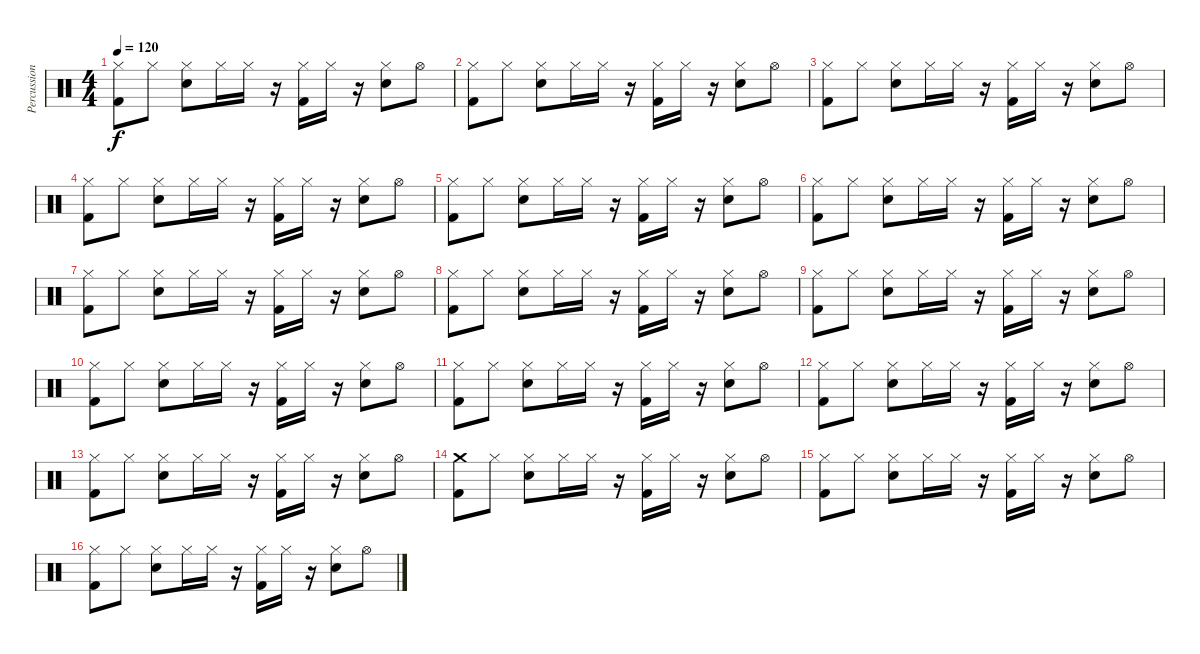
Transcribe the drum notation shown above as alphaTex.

\track ("Percussions" "Percussion") {instrument percussion}
\staff {score}
\articulation defaults
\ts (4 4)
\tempo 120
\clef neutral
\ks c
("Hi-Hat (closed)" "Kick (hit) 2").8{dy f} "Hi-Hat (closed)".8 ("Hi-Hat (closed)" "Snare (hit) 2").8 "Hi-Hat (closed)".16 "Hi-Hat (closed)".16 r.16 ("Hi-Hat (closed)" "Kick (hit) 2").16 "Hi-Hat (closed)".16 r.16 ("Hi-Hat (closed)" "Snare (hit) 2").8 "Hi-Hat (open)".8 |
("Hi-Hat (closed)" "Kick (hit) 2").8 "Hi-Hat (closed)".8 ("Hi-Hat (closed)" "Snare (hit) 2").8 "Hi-Hat (closed)".16 "Hi-Hat (closed)".16 r.16 ("Hi-Hat (closed)" "Kick (hit) 2").16 "Hi-Hat (closed)".16 r.16 ("Hi-Hat (closed)" "Snare (hit) 2").8 "Hi-Hat (open)".8 |
("Hi-Hat (closed)" "Kick (hit) 2").8 "Hi-Hat (closed)".8 ("Hi-Hat (closed)" "Snare (hit) 2").8 "Hi-Hat (closed)".16 "Hi-Hat (closed)".16 r.16 ("Hi-Hat (closed)" "Kick (hit) 2").16 "Hi-Hat (closed)".16 r.16 ("Hi-Hat (closed)" "Snare (hit) 2").8 "Hi-Hat (open)".8 |
("Hi-Hat (closed)" "Kick (hit) 2").8 "Hi-Hat (closed)".8 ("Hi-Hat (closed)" "Snare (hit) 2").8 "Hi-Hat (closed)".16 "Hi-Hat (closed)".16 r.16 ("Hi-Hat (closed)" "Kick (hit) 2").16 "Hi-Hat (closed)".16 r.16 ("Hi-Hat (closed)" "Snare (hit) 2").8 "Hi-Hat (open)".8 |
("Hi-Hat (closed)" "Kick (hit) 2").8 "Hi-Hat (closed)".8 ("Hi-Hat (closed)" "Snare (hit) 2").8 "Hi-Hat (closed)".16 "Hi-Hat (closed)".16 r.16 ("Hi-Hat (closed)" "Kick (hit) 2").16 "Hi-Hat (closed)".16 r.16 ("Hi-Hat (closed)" "Snare (hit) 2").8 "Hi-Hat (open)".8 |
("Hi-Hat (closed)" "Kick (hit) 2").8 "Hi-Hat (closed)".8 ("Hi-Hat (closed)" "Snare (hit) 2").8 "Hi-Hat (closed)".16 "Hi-Hat (closed)".16 r.16 ("Hi-Hat (closed)" "Kick (hit) 2").16 "Hi-Hat (closed)".16 r.16 ("Hi-Hat (closed)" "Snare (hit) 2").8 "Hi-Hat (open)".8 |
("Hi-Hat (closed)" "Kick (hit) 2").8 "Hi-Hat (closed)".8 ("Hi-Hat (closed)" "Snare (hit) 2").8 "Hi-Hat (closed)".16 "Hi-Hat (closed)".16 r.16 ("Hi-Hat (closed)" "Kick (hit) 2").16 "Hi-Hat (closed)".16 r.16 ("Hi-Hat (closed)" "Snare (hit) 2").8 "Hi-Hat (open)".8 |
("Hi-Hat (closed)" "Kick (hit) 2").8 "Hi-Hat (closed)".8 ("Hi-Hat (closed)" "Snare (hit) 2").8 "Hi-Hat (closed)".16 "Hi-Hat (closed)".16 r.16 ("Hi-Hat (closed)" "Kick (hit) 2").16 "Hi-Hat (closed)".16 r.16 ("Hi-Hat (closed)" "Snare (hit) 2").8 "Hi-Hat (open)".8 |
("Hi-Hat (closed)" "Kick (hit) 2").8 "Hi-Hat (closed)".8 ("Hi-Hat (closed)" "Snare (hit) 2").8 "Hi-Hat (closed)".16 "Hi-Hat (closed)".16 r.16 ("Hi-Hat (closed)" "Kick (hit) 2").16 "Hi-Hat (closed)".16 r.16 ("Hi-Hat (closed)" "Snare (hit) 2").8 "Hi-Hat (open)".8 |
("Hi-Hat (closed)" "Kick (hit) 2").8 "Hi-Hat (closed)".8 ("Hi-Hat (closed)" "Snare (hit) 2").8 "Hi-Hat (closed)".16 "Hi-Hat (closed)".16 r.16 ("Hi-Hat (closed)" "Kick (hit) 2").16 "Hi-Hat (closed)".16 r.16 ("Hi-Hat (closed)" "Snare (hit) 2").8 "Hi-Hat (open)".8 |
("Hi-Hat (closed)" "Kick (hit) 2").8 "Hi-Hat (closed)".8 ("Hi-Hat (closed)" "Snare (hit) 2").8 "Hi-Hat (closed)".16 "Hi-Hat (closed)".16 r.16 ("Hi-Hat (closed)" "Kick (hit) 2").16 "Hi-Hat (closed)".16 r.16 ("Hi-Hat (closed)" "Snare (hit) 2").8 "Hi-Hat (open)".8 |
("Hi-Hat (closed)" "Kick (hit) 2").8 "Hi-Hat (closed)".8 ("Hi-Hat (closed)" "Snare (hit) 2").8 "Hi-Hat (closed)".16 "Hi-Hat (closed)".16 r.16 ("Hi-Hat (closed)" "Kick (hit) 2").16 "Hi-Hat (closed)".16 r.16 ("Hi-Hat (closed)" "Snare (hit) 2").8 "Hi-Hat (open)".8 |
("Hi-Hat (closed)" "Kick (hit) 2").8 "Hi-Hat (closed)".8 ("Hi-Hat (closed)" "Snare (hit) 2").8 "Hi-Hat (closed)".16 "Hi-Hat (closed)".16 r.16 ("Hi-Hat (closed)" "Kick (hit) 2").16 "Hi-Hat (closed)".16 r.16 ("Hi-Hat (closed)" "Snare (hit) 2").8 "Hi-Hat (open)".8 |
("Crash medium (hit)" "Kick (hit) 2").8 "Hi-Hat (closed)".8 ("Hi-Hat (closed)" "Snare (hit) 2").8 "Hi-Hat (closed)".16 "Hi-Hat (closed)".16 r.16 ("Hi-Hat (closed)" "Kick (hit) 2").16 "Hi-Hat (closed)".16 r.16 ("Hi-Hat (closed)" "Snare (hit) 2").8 "Hi-Hat (open)".8 |
("Hi-Hat (closed)" "Kick (hit) 2").8 "Hi-Hat (closed)".8 ("Hi-Hat (closed)" "Snare (hit) 2").8 "Hi-Hat (closed)".16 "Hi-Hat (closed)".16 r.16 ("Hi-Hat (closed)" "Kick (hit) 2").16 "Hi-Hat (closed)".16 r.16 ("Hi-Hat (closed)" "Snare (hit) 2").8 "Hi-Hat (open)".8 |
("Hi-Hat (closed)" "Kick (hit) 2").8 "Hi-Hat (closed)".8 ("Hi-Hat (closed)" "Snare (hit) 2").8 "Hi-Hat (closed)".16 "Hi-Hat (closed)".16 r.16 ("Hi-Hat (closed)" "Kick (hit) 2").16 "Hi-Hat (closed)".16 r.16 ("Hi-Hat (closed)" "Snare (hit) 2").8 "Hi-Hat (open)".8
